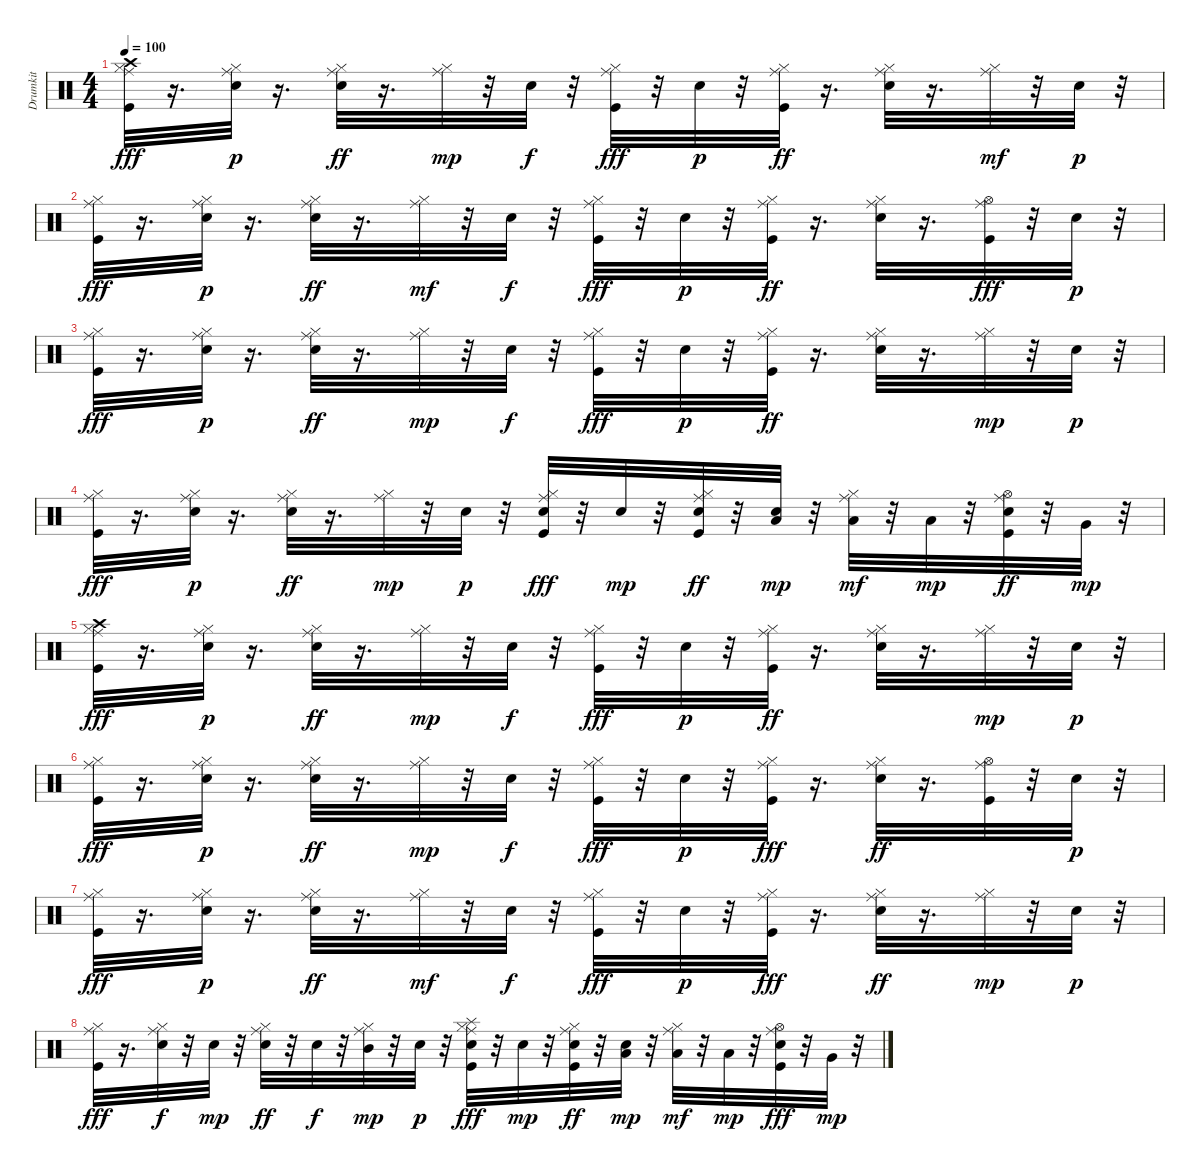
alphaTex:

\track ("Drumkit" "Drumkit") {instrument percussion}
\staff {score}
\articulation defaults
\ts (4 4)
\tempo 100
\clef neutral
\ks c
("Kick (hit)" "Hi-Hat (closed)" "Crash high (hit)" "Ride (middle)").32{dy fff} r.16{d} ("Snare (hit) 2" "Hi-Hat (closed)" "Ride (middle)").32{dy p} r.16{d} ("Snare (hit) 2" "Hi-Hat (closed)" "Ride (middle)").32{dy ff} r.16{d} ("Hi-Hat (closed)" "Ride (middle)").32{dy mp} r.32 "Snare (hit) 2".32{dy f} r.32 ("Kick (hit)" "Hi-Hat (closed)" "Ride (middle)").32{dy fff} r.32 "Snare (hit) 2".32{dy p} r.32 ("Kick (hit)" "Hi-Hat (closed)" "Ride (middle)").32{dy ff} r.16{d} ("Snare (hit) 2" "Hi-Hat (closed)" "Ride (middle)").32 r.16{d} ("Hi-Hat (closed)" "Ride (middle)").32{dy mf} r.32 "Snare (hit) 2".32{dy p} r.32 |
("Kick (hit)" "Hi-Hat (closed)" "Ride (middle)").32{dy fff} r.16{d} ("Snare (hit) 2" "Hi-Hat (closed)" "Ride (middle)").32{dy p} r.16{d} ("Snare (hit) 2" "Hi-Hat (closed)" "Ride (middle)").32{dy ff} r.16{d} ("Hi-Hat (closed)" "Ride (middle)").32{dy mf} r.32 "Snare (hit) 2".32{dy f} r.32 ("Kick (hit)" "Hi-Hat (closed)" "Ride (middle)").32{dy fff} r.32 "Snare (hit) 2".32{dy p} r.32 ("Kick (hit)" "Hi-Hat (closed)" "Ride (middle)").32{dy ff} r.16{d} ("Snare (hit) 2" "Hi-Hat (closed)" "Ride (middle)").32 r.16{d} ("Kick (hit)" "Hi-Hat (open)" "Ride (middle)").32{dy fff} r.32 "Snare (hit) 2".32{dy p} r.32 |
("Kick (hit)" "Hi-Hat (closed)" "Ride (middle)").32{dy fff} r.16{d} ("Snare (hit) 2" "Hi-Hat (closed)" "Ride (middle)").32{dy p} r.16{d} ("Snare (hit) 2" "Hi-Hat (closed)" "Ride (middle)").32{dy ff} r.16{d} ("Hi-Hat (closed)" "Ride (middle)").32{dy mp} r.32 "Snare (hit) 2".32{dy f} r.32 ("Kick (hit)" "Hi-Hat (closed)" "Ride (middle)").32{dy fff} r.32 "Snare (hit) 2".32{dy p} r.32 ("Kick (hit)" "Hi-Hat (closed)" "Ride (middle)").32{dy ff} r.16{d} ("Snare (hit) 2" "Hi-Hat (closed)" "Ride (middle)").32 r.16{d} ("Hi-Hat (closed)" "Ride (middle)").32{dy mp} r.32 "Snare (hit) 2".32{dy p} r.32 |
("Kick (hit)" "Hi-Hat (closed)" "Ride (middle)").32{dy fff} r.16{d} ("Snare (hit) 2" "Hi-Hat (closed)" "Ride (middle)").32{dy p} r.16{d} ("Snare (hit) 2" "Hi-Hat (closed)" "Ride (middle)").32{dy ff} r.16{d} ("Hi-Hat (closed)" "Ride (middle)").32{dy mp} r.32 "Snare (hit) 2".32{dy p} r.32 ("Kick (hit)" "Snare (hit) 2" "Hi-Hat (closed)" "Ride (middle)").32{dy fff} r.32 "Snare (hit) 2".32{dy mp} r.32 ("Kick (hit)" "Snare (hit) 2" "Hi-Hat (closed)" "Ride (middle)").32{dy ff} r.32 ("Snare (hit) 2" "Low Tom (hit)").32{dy mp} r.32 ("Hi-Hat (closed)" "Low Tom (hit)" "Ride (middle)").32{dy mf} r.32 "Low Tom (hit)".32{dy mp} r.32 ("Kick (hit)" "Snare (hit) 2" "Hi-Hat (open)" "Ride (middle)").32{dy ff} r.32 "Very Low Tom (hit)".32{dy mp} r.32 |
("Kick (hit)" "Hi-Hat (closed)" "Crash high (hit)" "Ride (middle)").32{dy fff} r.16{d} ("Snare (hit) 2" "Hi-Hat (closed)" "Ride (middle)").32{dy p} r.16{d} ("Snare (hit) 2" "Hi-Hat (closed)" "Ride (middle)").32{dy ff} r.16{d} ("Hi-Hat (closed)" "Ride (middle)").32{dy mp} r.32 "Snare (hit) 2".32{dy f} r.32 ("Kick (hit)" "Hi-Hat (closed)" "Ride (middle)").32{dy fff} r.32 "Snare (hit) 2".32{dy p} r.32 ("Kick (hit)" "Hi-Hat (closed)" "Ride (middle)").32{dy ff} r.16{d} ("Snare (hit) 2" "Hi-Hat (closed)" "Ride (middle)").32 r.16{d} ("Hi-Hat (closed)" "Ride (middle)").32{dy mp} r.32 "Snare (hit) 2".32{dy p} r.32 |
("Kick (hit)" "Hi-Hat (closed)" "Ride (middle)").32{dy fff} r.16{d} ("Snare (hit) 2" "Hi-Hat (closed)" "Ride (middle)").32{dy p} r.16{d} ("Snare (hit) 2" "Hi-Hat (closed)" "Ride (middle)").32{dy ff} r.16{d} ("Hi-Hat (closed)" "Ride (middle)").32{dy mp} r.32 "Snare (hit) 2".32{dy f} r.32 ("Kick (hit)" "Hi-Hat (closed)" "Ride (middle)").32{dy fff} r.32 "Snare (hit) 2".32{dy p} r.32 ("Kick (hit)" "Hi-Hat (closed)" "Ride (middle)").32{dy fff} r.16{d} ("Snare (hit) 2" "Hi-Hat (closed)" "Ride (middle)").32{dy ff} r.16{d} ("Kick (hit)" "Hi-Hat (open)" "Ride (middle)").32 r.32 "Snare (hit) 2".32{dy p} r.32 |
("Kick (hit)" "Hi-Hat (closed)" "Ride (middle)").32{dy fff} r.16{d} ("Snare (hit) 2" "Hi-Hat (closed)" "Ride (middle)").32{dy p} r.16{d} ("Snare (hit) 2" "Hi-Hat (closed)" "Ride (middle)").32{dy ff} r.16{d} ("Hi-Hat (closed)" "Ride (middle)").32{dy mf} r.32 "Snare (hit) 2".32{dy f} r.32 ("Kick (hit)" "Hi-Hat (closed)" "Ride (middle)").32{dy fff} r.32 "Snare (hit) 2".32{dy p} r.32 ("Kick (hit)" "Hi-Hat (closed)" "Ride (middle)").32{dy fff} r.16{d} ("Snare (hit) 2" "Hi-Hat (closed)" "Ride (middle)").32{dy ff} r.16{d} ("Hi-Hat (closed)" "Ride (middle)").32{dy mp} r.32 "Snare (hit) 2".32{dy p} r.32 |
("Kick (hit)" "Hi-Hat (closed)" "Ride (middle)").32{dy fff} r.16{d} ("Snare (hit) 2" "Hi-Hat (closed)" "Ride (middle)").32{dy f} r.32 "Snare (hit) 2".32{dy mp} r.32 ("Snare (hit) 2" "Hi-Hat (closed)" "Ride (middle)").32{dy ff} r.32 "Snare (hit) 2".32{dy f} r.32 ("Hi-Hat (closed)" "Mid Tom (hit)" "Ride (middle)").32{dy mp} r.32 "Snare (hit) 2".32{dy p} r.32 ("Kick (hit)" "Snare (hit) 2" "Hi-Hat (closed)" "Ride (middle)" "Splash (hit)").32{dy fff} r.32 "Snare (hit) 2".32{dy mp} r.32 ("Kick (hit)" "Snare (hit) 2" "Hi-Hat (closed)" "Ride (middle)").32{dy ff} r.32 ("Snare (hit) 2" "Low Tom (hit)").32{dy mp} r.32 ("Hi-Hat (closed)" "Low Tom (hit)" "Ride (middle)").32{dy mf} r.32 "Low Tom (hit)".32{dy mp} r.32 ("Kick (hit)" "Snare (hit) 2" "Hi-Hat (open)" "Ride (middle)").32{dy fff} r.32 "Very Low Tom (hit)".32{dy mp} r.32
